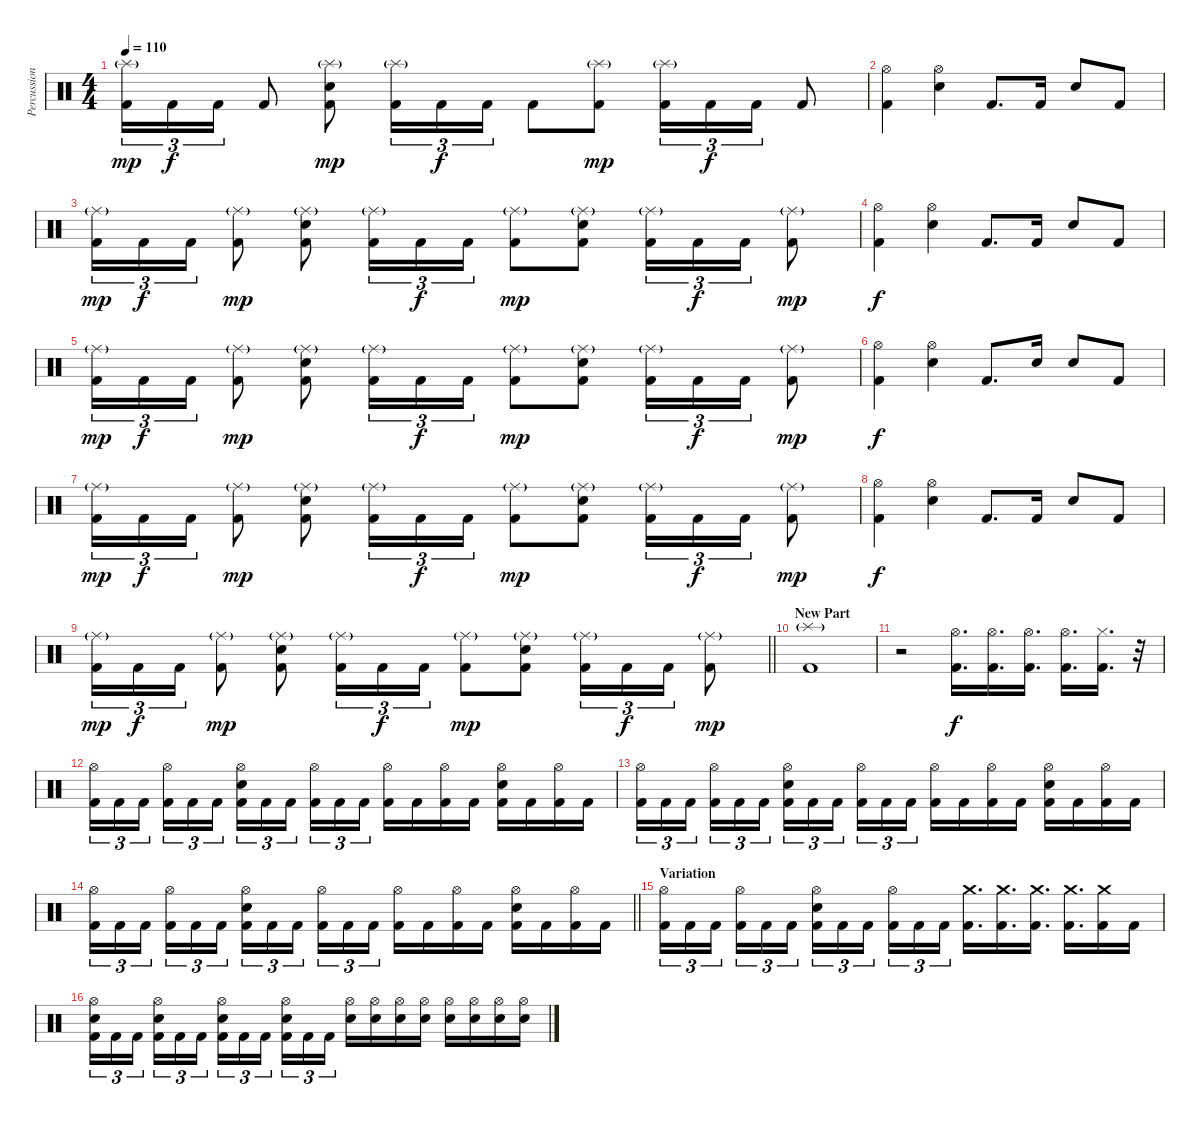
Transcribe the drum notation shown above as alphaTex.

\track ("Percussion" "Percussion") {instrument percussion}
\staff {score}
\articulation defaults
\ts (4 4)
\tempo 110
\clef neutral
\ks c
("Splash (hit)"{g} "Kick (hit) 2").16{tu (3 2) dy mp} "Kick (hit) 2".16{tu (3 2) dy f} "Kick (hit) 2".16{tu (3 2)} "Kick (hit) 2".8 ("Splash (hit)"{g} "Electric Snare (hit)" "Kick (hit) 2").8{dy mp} ("Splash (hit)"{g} "Kick (hit) 2").16{tu (3 2)} "Kick (hit) 2".16{tu (3 2) dy f} "Kick (hit) 2".16{tu (3 2)} "Kick (hit) 2".8 ("Splash (hit)"{g} "Kick (hit) 2").8{dy mp} ("Splash (hit)"{g} "Kick (hit) 2").16{tu (3 2)} "Kick (hit) 2".16{tu (3 2) dy f} "Kick (hit) 2".16{tu (3 2)} "Kick (hit) 2".8 |
("Hi-Hat (open)" "Kick (hit) 2").4 ("Hi-Hat (open)" "Electric Snare (hit)").4 "Kick (hit) 2".8{d} "Kick (hit) 2".16 "Electric Snare (hit)".8 "Kick (hit) 2".8 |
("Ride (middle)"{g} "Kick (hit) 2").16{tu (3 2) dy mp} "Kick (hit) 2".16{tu (3 2) dy f} "Kick (hit) 2".16{tu (3 2)} ("Ride (middle)"{g} "Kick (hit) 2").8{dy mp} ("Ride (middle)"{g} "Electric Snare (hit)" "Kick (hit) 2").8 ("Ride (middle)"{g} "Kick (hit) 2").16{tu (3 2)} "Kick (hit) 2".16{tu (3 2) dy f} "Kick (hit) 2".16{tu (3 2)} ("Ride (middle)"{g} "Kick (hit) 2").8{dy mp} ("Ride (middle)"{g} "Electric Snare (hit)" "Kick (hit) 2").8 ("Ride (middle)"{g} "Kick (hit) 2").16{tu (3 2)} "Kick (hit) 2".16{tu (3 2) dy f} "Kick (hit) 2".16{tu (3 2)} ("Ride (middle)"{g} "Kick (hit) 2").8{dy mp} |
("Hi-Hat (open)" "Kick (hit) 2").4{dy f} ("Hi-Hat (open)" "Electric Snare (hit)").4 "Kick (hit) 2".8{d} "Kick (hit) 2".16 "Electric Snare (hit)".8 "Kick (hit) 2".8 |
("Ride (middle)"{g} "Kick (hit) 2").16{tu (3 2) dy mp} "Kick (hit) 2".16{tu (3 2) dy f} "Kick (hit) 2".16{tu (3 2)} ("Ride (middle)"{g} "Kick (hit) 2").8{dy mp} ("Ride (middle)"{g} "Electric Snare (hit)" "Kick (hit) 2").8 ("Ride (middle)"{g} "Kick (hit) 2").16{tu (3 2)} "Kick (hit) 2".16{tu (3 2) dy f} "Kick (hit) 2".16{tu (3 2)} ("Ride (middle)"{g} "Kick (hit) 2").8{dy mp} ("Ride (middle)"{g} "Electric Snare (hit)" "Kick (hit) 2").8 ("Ride (middle)"{g} "Kick (hit) 2").16{tu (3 2)} "Kick (hit) 2".16{tu (3 2) dy f} "Kick (hit) 2".16{tu (3 2)} ("Ride (middle)"{g} "Kick (hit) 2").8{dy mp} |
("Hi-Hat (open)" "Kick (hit) 2").4{dy f} ("Hi-Hat (open)" "Electric Snare (hit)").4 "Kick (hit) 2".8{d} "Electric Snare (hit)".16 "Electric Snare (hit)".8 "Kick (hit) 2".8 |
("Ride (middle)"{g} "Kick (hit) 2").16{tu (3 2) dy mp} "Kick (hit) 2".16{tu (3 2) dy f} "Kick (hit) 2".16{tu (3 2)} ("Ride (middle)"{g} "Kick (hit) 2").8{dy mp} ("Ride (middle)"{g} "Electric Snare (hit)" "Kick (hit) 2").8 ("Ride (middle)"{g} "Kick (hit) 2").16{tu (3 2)} "Kick (hit) 2".16{tu (3 2) dy f} "Kick (hit) 2".16{tu (3 2)} ("Ride (middle)"{g} "Kick (hit) 2").8{dy mp} ("Ride (middle)"{g} "Electric Snare (hit)" "Kick (hit) 2").8 ("Ride (middle)"{g} "Kick (hit) 2").16{tu (3 2)} "Kick (hit) 2".16{tu (3 2) dy f} "Kick (hit) 2".16{tu (3 2)} ("Ride (middle)"{g} "Kick (hit) 2").8{dy mp} |
("Hi-Hat (open)" "Kick (hit) 2").4{dy f} ("Hi-Hat (open)" "Electric Snare (hit)").4 "Kick (hit) 2".8{d} "Kick (hit) 2".16 "Electric Snare (hit)".8 "Kick (hit) 2".8 |
\barLineRight lightlight
("Ride (middle)"{g} "Kick (hit) 2").16{tu (3 2) dy mp} "Kick (hit) 2".16{tu (3 2) dy f} "Kick (hit) 2".16{tu (3 2)} ("Ride (middle)"{g} "Kick (hit) 2").8{dy mp} ("Ride (middle)"{g} "Electric Snare (hit)" "Kick (hit) 2").8 ("Ride (middle)"{g} "Kick (hit) 2").16{tu (3 2)} "Kick (hit) 2".16{tu (3 2) dy f} "Kick (hit) 2".16{tu (3 2)} ("Ride (middle)"{g} "Kick (hit) 2").8{dy mp} ("Ride (middle)"{g} "Electric Snare (hit)" "Kick (hit) 2").8 ("Ride (middle)"{g} "Kick (hit) 2").16{tu (3 2)} "Kick (hit) 2".16{tu (3 2) dy f} "Kick (hit) 2".16{tu (3 2)} ("Ride (middle)"{g} "Kick (hit) 2").8{dy mp} |
\section ("" "New Part")
("Splash (hit)"{g} "Kick (hit) 2").1 |
r.2 ("Hi-Hat (open)" "Kick (hit) 2").16{d dy f} ("Hi-Hat (open)" "Kick (hit) 2").16{d} ("Hi-Hat (open)" "Kick (hit) 2").16{d} ("Hi-Hat (open)" "Kick (hit) 2").16{d} ("Hi-Hat (closed)" "Kick (hit) 2").16{d} r.32 |
("Hi-Hat (open)" "Kick (hit) 2").16{tu (3 2)} "Kick (hit) 2".16{tu (3 2)} "Kick (hit) 2".16{tu (3 2) beam splitsecondary} ("Hi-Hat (open)" "Kick (hit) 2").16{tu (3 2)} "Kick (hit) 2".16{tu (3 2)} "Kick (hit) 2".16{tu (3 2)} ("Hi-Hat (open)" "Electric Snare (hit)" "Kick (hit) 2").16{tu (3 2)} "Kick (hit) 2".16{tu (3 2)} "Kick (hit) 2".16{tu (3 2) beam splitsecondary} ("Hi-Hat (open)" "Kick (hit) 2").16{tu (3 2)} "Kick (hit) 2".16{tu (3 2)} "Kick (hit) 2".16{tu (3 2)} ("Hi-Hat (open)" "Kick (hit) 2").16 "Kick (hit) 2".16 ("Hi-Hat (open)" "Kick (hit) 2").16 "Kick (hit) 2".16 ("Hi-Hat (open)" "Electric Snare (hit)" "Kick (hit) 2").16 "Kick (hit) 2".16 ("Hi-Hat (open)" "Kick (hit) 2").16 "Kick (hit) 2".16 |
("Hi-Hat (open)" "Kick (hit) 2").16{tu (3 2)} "Kick (hit) 2".16{tu (3 2)} "Kick (hit) 2".16{tu (3 2) beam splitsecondary} ("Hi-Hat (open)" "Kick (hit) 2").16{tu (3 2)} "Kick (hit) 2".16{tu (3 2)} "Kick (hit) 2".16{tu (3 2)} ("Hi-Hat (open)" "Electric Snare (hit)" "Kick (hit) 2").16{tu (3 2)} "Kick (hit) 2".16{tu (3 2)} "Kick (hit) 2".16{tu (3 2) beam splitsecondary} ("Hi-Hat (open)" "Kick (hit) 2").16{tu (3 2)} "Kick (hit) 2".16{tu (3 2)} "Kick (hit) 2".16{tu (3 2)} ("Hi-Hat (open)" "Kick (hit) 2").16 "Kick (hit) 2".16 ("Hi-Hat (open)" "Kick (hit) 2").16 "Kick (hit) 2".16 ("Hi-Hat (open)" "Electric Snare (hit)" "Kick (hit) 2").16 "Kick (hit) 2".16 ("Hi-Hat (open)" "Kick (hit) 2").16 "Kick (hit) 2".16 |
\barLineRight lightlight
("Hi-Hat (open)" "Kick (hit) 2").16{tu (3 2)} "Kick (hit) 2".16{tu (3 2)} "Kick (hit) 2".16{tu (3 2) beam splitsecondary} ("Hi-Hat (open)" "Kick (hit) 2").16{tu (3 2)} "Kick (hit) 2".16{tu (3 2)} "Kick (hit) 2".16{tu (3 2)} ("Hi-Hat (open)" "Electric Snare (hit)" "Kick (hit) 2").16{tu (3 2)} "Kick (hit) 2".16{tu (3 2)} "Kick (hit) 2".16{tu (3 2) beam splitsecondary} ("Hi-Hat (open)" "Kick (hit) 2").16{tu (3 2)} "Kick (hit) 2".16{tu (3 2)} "Kick (hit) 2".16{tu (3 2)} ("Hi-Hat (open)" "Kick (hit) 2").16 "Kick (hit) 2".16 ("Hi-Hat (open)" "Kick (hit) 2").16 "Kick (hit) 2".16 ("Hi-Hat (open)" "Electric Snare (hit)" "Kick (hit) 2").16 "Kick (hit) 2".16 ("Hi-Hat (open)" "Kick (hit) 2").16 "Kick (hit) 2".16 |
\section ("" "Variation")
("Hi-Hat (open)" "Kick (hit) 2").16{tu (3 2)} "Kick (hit) 2".16{tu (3 2)} "Kick (hit) 2".16{tu (3 2) beam splitsecondary} ("Hi-Hat (open)" "Kick (hit) 2").16{tu (3 2)} "Kick (hit) 2".16{tu (3 2)} "Kick (hit) 2".16{tu (3 2)} ("Hi-Hat (open)" "Electric Snare (hit)" "Kick (hit) 2").16{tu (3 2)} "Kick (hit) 2".16{tu (3 2)} "Kick (hit) 2".16{tu (3 2) beam splitsecondary} ("Hi-Hat (open)" "Kick (hit) 2").16{tu (3 2)} "Kick (hit) 2".16{tu (3 2)} "Kick (hit) 2".16{tu (3 2)} ("Crash medium (hit)" "Kick (hit) 2").16{d} ("Crash medium (hit)" "Kick (hit) 2").16{d} ("Crash medium (hit)" "Kick (hit) 2").16{d} ("Crash medium (hit)" "Kick (hit) 2").16{d} ("Crash medium (hit)" "Kick (hit) 2").16 "Kick (hit) 2".16 |
("Hi-Hat (open)" "Electric Snare (hit)" "Kick (hit) 2").16{tu (3 2)} "Kick (hit) 2".16{tu (3 2)} "Kick (hit) 2".16{tu (3 2) beam splitsecondary} ("Hi-Hat (open)" "Electric Snare (hit)" "Kick (hit) 2").16{tu (3 2)} "Kick (hit) 2".16{tu (3 2)} "Kick (hit) 2".16{tu (3 2)} ("Hi-Hat (open)" "Electric Snare (hit)" "Kick (hit) 2").16{tu (3 2)} "Kick (hit) 2".16{tu (3 2)} "Kick (hit) 2".16{tu (3 2) beam splitsecondary} ("Hi-Hat (open)" "Electric Snare (hit)" "Kick (hit) 2").16{tu (3 2)} "Kick (hit) 2".16{tu (3 2)} "Kick (hit) 2".16{tu (3 2)} ("Hi-Hat (open)" "Electric Snare (hit)").16 ("Hi-Hat (open)" "Electric Snare (hit)").16 ("Hi-Hat (open)" "Electric Snare (hit)").16 ("Hi-Hat (open)" "Electric Snare (hit)").16 ("Hi-Hat (open)" "Electric Snare (hit)").16 ("Hi-Hat (open)" "Electric Snare (hit)").16 ("Hi-Hat (open)" "Electric Snare (hit)").16 ("Hi-Hat (open)" "Electric Snare (hit)").16
